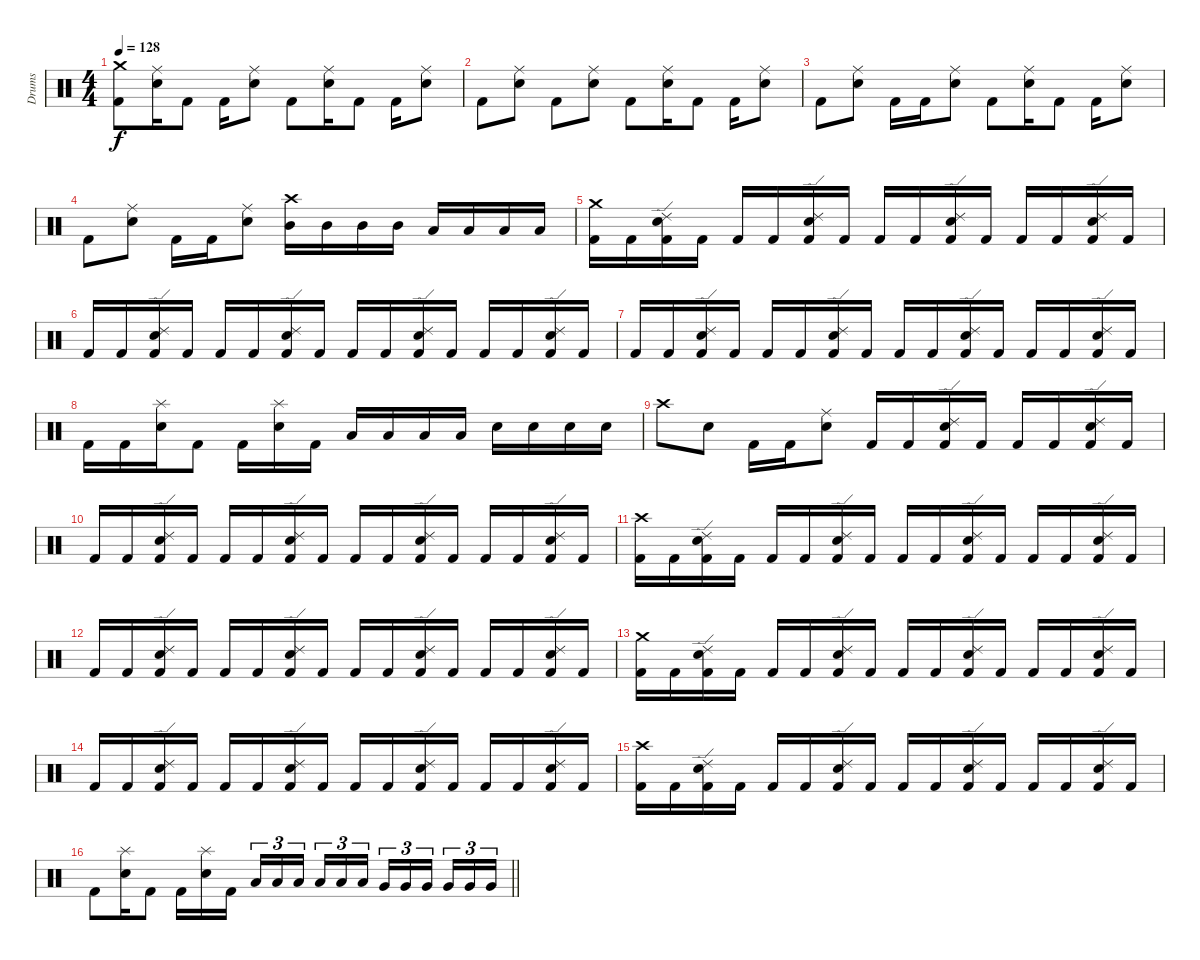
\track ("Drums" "Drums") {instrument percussion}
\staff {score}
\articulation defaults
\ts (4 4)
\tempo 128
\clef neutral
\ks c
("Crash medium (hit)" "Kick (hit) 2").8{dy f} ("Ride (middle)" "Snare (hit) 2").16 "Kick (hit) 2".8 "Kick (hit) 2".16 ("Ride (middle)" "Snare (hit) 2").8 "Kick (hit) 2".8 ("Ride (middle)" "Snare (hit) 2").16 "Kick (hit) 2".8 "Kick (hit) 2".16 ("Ride (middle)" "Snare (hit) 2").8 |
"Kick (hit) 2".8 ("Ride (middle)" "Snare (hit) 2").8 "Kick (hit) 2".8 ("Ride (middle)" "Snare (hit) 2").8 "Kick (hit) 2".8 ("Ride (middle)" "Snare (hit) 2").16 "Kick (hit) 2".8 "Kick (hit) 2".16 ("Ride (middle)" "Snare (hit) 2").8 |
"Kick (hit) 2".8 ("Ride (middle)" "Snare (hit) 2").8 "Kick (hit) 2".16 "Kick (hit) 2".16 ("Ride (middle)" "Snare (hit) 2").8 "Kick (hit) 2".8 ("Ride (middle)" "Snare (hit) 2").16 "Kick (hit) 2".8 "Kick (hit) 2".16 ("Ride (middle)" "Snare (hit) 2").8 |
"Kick (hit) 2".8 ("Ride (middle)" "Snare (hit) 2").8 "Kick (hit) 2".16 "Kick (hit) 2".16 ("Ride (middle)" "Snare (hit) 2").8 ("Crash high (hit)" "Mid Tom (hit)").16 "Mid Tom (hit)".16 "Mid Tom (hit)".16 "Mid Tom (hit)".16 "Low Tom (hit)".16 "Low Tom (hit)".16 "Low Tom (hit)".16 "Low Tom (hit)".16 |
("Crash medium (hit)" "Kick (hit) 2").16 "Kick (hit) 2".16 ("Ride (edge) 2" "Snare (hit) 2" "Kick (hit) 2").16 "Kick (hit) 2".16 "Kick (hit) 2".16 "Kick (hit) 2".16 ("Ride (edge) 2" "Snare (hit) 2" "Kick (hit) 2").16 "Kick (hit) 2".16 "Kick (hit) 2".16 "Kick (hit) 2".16 ("Ride (edge) 2" "Snare (hit) 2" "Kick (hit) 2").16 "Kick (hit) 2".16 "Kick (hit) 2".16 "Kick (hit) 2".16 ("Ride (edge) 2" "Snare (hit) 2" "Kick (hit) 2").16 "Kick (hit) 2".16 |
"Kick (hit) 2".16 "Kick (hit) 2".16 ("Ride (edge) 2" "Snare (hit) 2" "Kick (hit) 2").16 "Kick (hit) 2".16 "Kick (hit) 2".16 "Kick (hit) 2".16 ("Ride (edge) 2" "Snare (hit) 2" "Kick (hit) 2").16 "Kick (hit) 2".16 "Kick (hit) 2".16 "Kick (hit) 2".16 ("Ride (edge) 2" "Snare (hit) 2" "Kick (hit) 2").16 "Kick (hit) 2".16 "Kick (hit) 2".16 "Kick (hit) 2".16 ("Ride (edge) 2" "Snare (hit) 2" "Kick (hit) 2").16 "Kick (hit) 2".16 |
"Kick (hit) 2".16 "Kick (hit) 2".16 ("Ride (edge) 2" "Snare (hit) 2" "Kick (hit) 2").16 "Kick (hit) 2".16 "Kick (hit) 2".16 "Kick (hit) 2".16 ("Ride (edge) 2" "Snare (hit) 2" "Kick (hit) 2").16 "Kick (hit) 2".16 "Kick (hit) 2".16 "Kick (hit) 2".16 ("Ride (edge) 2" "Snare (hit) 2" "Kick (hit) 2").16 "Kick (hit) 2".16 "Kick (hit) 2".16 "Kick (hit) 2".16 ("Ride (edge) 2" "Snare (hit) 2" "Kick (hit) 2").16 "Kick (hit) 2".16 |
"Kick (hit) 2".16 "Kick (hit) 2".16 ("Splash (hit)" "Snare (hit) 2").16 "Kick (hit) 2".8 "Kick (hit) 2".16 ("Splash (hit)" "Snare (hit) 2").16 "Kick (hit) 2".16 "Low Tom (hit)".16 "Low Tom (hit)".16 "Low Tom (hit)".16 "Low Tom (hit)".16 "Snare (hit) 2".16 "Snare (hit) 2".16 "Snare (hit) 2".16 "Snare (hit) 2".16 |
"Crash high (hit)".8 "Snare (hit) 2".8 "Kick (hit) 2".16 "Kick (hit) 2".16 ("Ride (middle)" "Snare (hit) 2").8 "Kick (hit) 2".16 "Kick (hit) 2".16 ("Ride (edge) 2" "Snare (hit) 2" "Kick (hit) 2").16 "Kick (hit) 2".16 "Kick (hit) 2".16 "Kick (hit) 2".16 ("Ride (edge) 2" "Snare (hit) 2" "Kick (hit) 2").16 "Kick (hit) 2".16 |
"Kick (hit) 2".16 "Kick (hit) 2".16 ("Ride (edge) 2" "Snare (hit) 2" "Kick (hit) 2").16 "Kick (hit) 2".16 "Kick (hit) 2".16 "Kick (hit) 2".16 ("Ride (edge) 2" "Snare (hit) 2" "Kick (hit) 2").16 "Kick (hit) 2".16 "Kick (hit) 2".16 "Kick (hit) 2".16 ("Ride (edge) 2" "Snare (hit) 2" "Kick (hit) 2").16 "Kick (hit) 2".16 "Kick (hit) 2".16 "Kick (hit) 2".16 ("Ride (edge) 2" "Snare (hit) 2" "Kick (hit) 2").16 "Kick (hit) 2".16 |
("Crash high (hit)" "Kick (hit) 2").16 "Kick (hit) 2".16 ("Ride (edge) 2" "Snare (hit) 2" "Kick (hit) 2").16 "Kick (hit) 2".16 "Kick (hit) 2".16 "Kick (hit) 2".16 ("Ride (edge) 2" "Snare (hit) 2" "Kick (hit) 2").16 "Kick (hit) 2".16 "Kick (hit) 2".16 "Kick (hit) 2".16 ("Ride (edge) 2" "Snare (hit) 2" "Kick (hit) 2").16 "Kick (hit) 2".16 "Kick (hit) 2".16 "Kick (hit) 2".16 ("Ride (edge) 2" "Snare (hit) 2" "Kick (hit) 2").16 "Kick (hit) 2".16 |
"Kick (hit) 2".16 "Kick (hit) 2".16 ("Ride (edge) 2" "Snare (hit) 2" "Kick (hit) 2").16 "Kick (hit) 2".16 "Kick (hit) 2".16 "Kick (hit) 2".16 ("Ride (edge) 2" "Snare (hit) 2" "Kick (hit) 2").16 "Kick (hit) 2".16 "Kick (hit) 2".16 "Kick (hit) 2".16 ("Ride (edge) 2" "Snare (hit) 2" "Kick (hit) 2").16 "Kick (hit) 2".16 "Kick (hit) 2".16 "Kick (hit) 2".16 ("Ride (edge) 2" "Snare (hit) 2" "Kick (hit) 2").16 "Kick (hit) 2".16 |
("Crash medium (hit)" "Kick (hit) 2").16 "Kick (hit) 2".16 ("Ride (edge) 2" "Snare (hit) 2" "Kick (hit) 2").16 "Kick (hit) 2".16 "Kick (hit) 2".16 "Kick (hit) 2".16 ("Ride (edge) 2" "Snare (hit) 2" "Kick (hit) 2").16 "Kick (hit) 2".16 "Kick (hit) 2".16 "Kick (hit) 2".16 ("Ride (edge) 2" "Snare (hit) 2" "Kick (hit) 2").16 "Kick (hit) 2".16 "Kick (hit) 2".16 "Kick (hit) 2".16 ("Ride (edge) 2" "Snare (hit) 2" "Kick (hit) 2").16 "Kick (hit) 2".16 |
"Kick (hit) 2".16 "Kick (hit) 2".16 ("Ride (edge) 2" "Snare (hit) 2" "Kick (hit) 2").16 "Kick (hit) 2".16 "Kick (hit) 2".16 "Kick (hit) 2".16 ("Ride (edge) 2" "Snare (hit) 2" "Kick (hit) 2").16 "Kick (hit) 2".16 "Kick (hit) 2".16 "Kick (hit) 2".16 ("Ride (edge) 2" "Snare (hit) 2" "Kick (hit) 2").16 "Kick (hit) 2".16 "Kick (hit) 2".16 "Kick (hit) 2".16 ("Ride (edge) 2" "Snare (hit) 2" "Kick (hit) 2").16 "Kick (hit) 2".16 |
("Crash high (hit)" "Kick (hit) 2").16 "Kick (hit) 2".16 ("Ride (edge) 2" "Snare (hit) 2" "Kick (hit) 2").16 "Kick (hit) 2".16 "Kick (hit) 2".16 "Kick (hit) 2".16 ("Ride (edge) 2" "Snare (hit) 2" "Kick (hit) 2").16 "Kick (hit) 2".16 "Kick (hit) 2".16 "Kick (hit) 2".16 ("Ride (edge) 2" "Snare (hit) 2" "Kick (hit) 2").16 "Kick (hit) 2".16 "Kick (hit) 2".16 "Kick (hit) 2".16 ("Ride (edge) 2" "Snare (hit) 2" "Kick (hit) 2").16 "Kick (hit) 2".16 |
\barLineRight lightlight "Kick (hit) 2".8
("Splash (hit)" "Snare (hit) 2").16 "Kick (hit) 2".8 "Kick (hit) 2".16 ("Splash (hit)" "Snare (hit) 2").16 "Kick (hit) 2".16 "Low Tom (hit)".16{tu (3 2)} "Low Tom (hit)".16{tu (3 2)} "Low Tom (hit)".16{tu (3 2) beam splitsecondary} "Low Tom (hit)".16{tu (3 2)} "Low Tom (hit)".16{tu (3 2)} "Low Tom (hit)".16{tu (3 2)} "Very Low Tom (hit)".16{tu (3 2)} "Very Low Tom (hit)".16{tu (3 2)} "Very Low Tom (hit)".16{tu (3 2) beam splitsecondary} "Very Low Tom (hit)".16{tu (3 2)} "Very Low Tom (hit)".16{tu (3 2)} "Very Low Tom (hit)".16{tu (3 2)}
